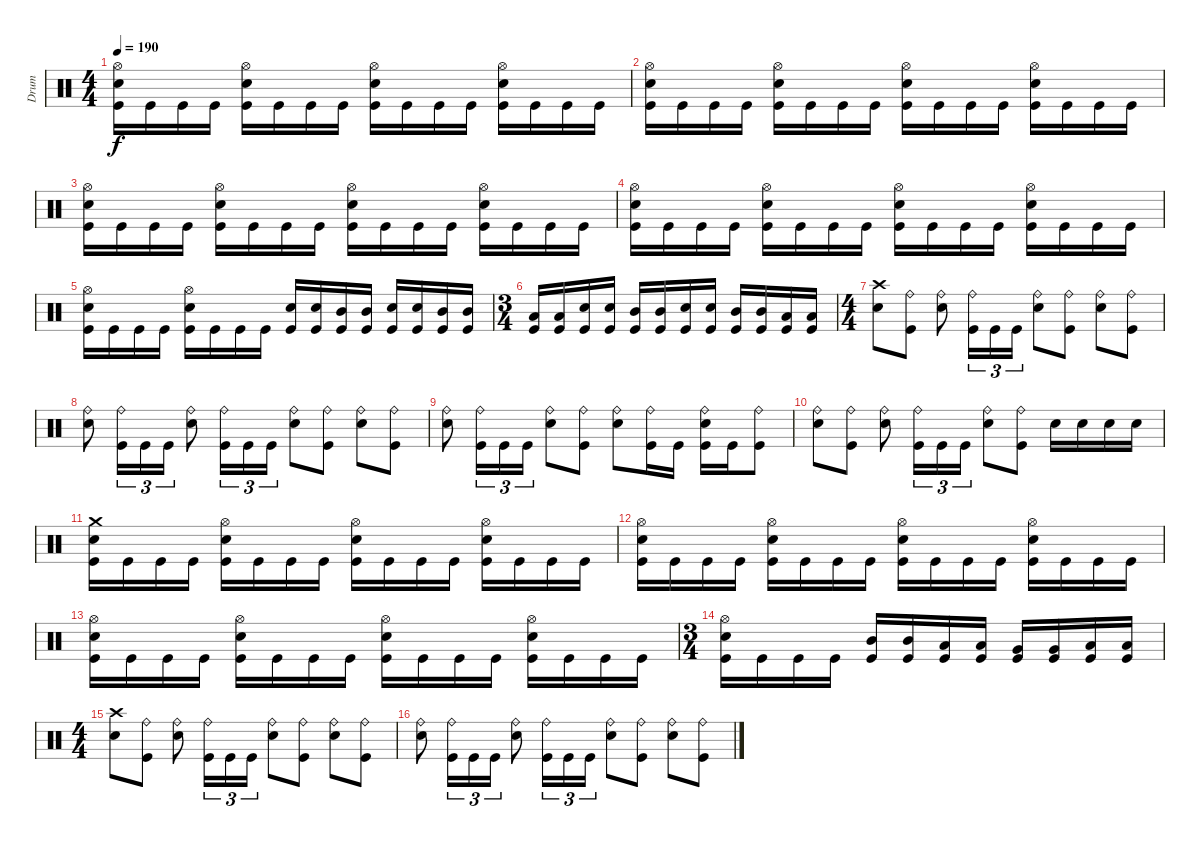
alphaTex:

\track ("Drum" "Drum") {instrument percussion}
\staff {score}
\articulation defaults
\ts (4 4)
\tempo 190
\clef neutral
\ks c
("Kick (hit)" "Electric Snare (hit)" "Hi-Hat (open)").16{dy f} "Kick (hit)".16 "Kick (hit)".16 "Kick (hit)".16 ("Kick (hit)" "Electric Snare (hit)" "Hi-Hat (open)").16 "Kick (hit)".16 "Kick (hit)".16 "Kick (hit)".16 ("Kick (hit)" "Electric Snare (hit)" "Hi-Hat (open)").16 "Kick (hit)".16 "Kick (hit)".16 "Kick (hit)".16 ("Kick (hit)" "Electric Snare (hit)" "Hi-Hat (open)").16 "Kick (hit)".16 "Kick (hit)".16 "Kick (hit)".16 |
("Kick (hit)" "Electric Snare (hit)" "Hi-Hat (open)").16 "Kick (hit)".16 "Kick (hit)".16 "Kick (hit)".16 ("Kick (hit)" "Electric Snare (hit)" "Hi-Hat (open)").16 "Kick (hit)".16 "Kick (hit)".16 "Kick (hit)".16 ("Kick (hit)" "Electric Snare (hit)" "Hi-Hat (open)").16 "Kick (hit)".16 "Kick (hit)".16 "Kick (hit)".16 ("Kick (hit)" "Electric Snare (hit)" "Hi-Hat (open)").16 "Kick (hit)".16 "Kick (hit)".16 "Kick (hit)".16 |
("Kick (hit)" "Electric Snare (hit)" "Hi-Hat (open)").16 "Kick (hit)".16 "Kick (hit)".16 "Kick (hit)".16 ("Kick (hit)" "Electric Snare (hit)" "Hi-Hat (open)").16 "Kick (hit)".16 "Kick (hit)".16 "Kick (hit)".16 ("Kick (hit)" "Electric Snare (hit)" "Hi-Hat (open)").16 "Kick (hit)".16 "Kick (hit)".16 "Kick (hit)".16 ("Kick (hit)" "Electric Snare (hit)" "Hi-Hat (open)").16 "Kick (hit)".16 "Kick (hit)".16 "Kick (hit)".16 |
("Kick (hit)" "Electric Snare (hit)" "Hi-Hat (open)").16 "Kick (hit)".16 "Kick (hit)".16 "Kick (hit)".16 ("Kick (hit)" "Electric Snare (hit)" "Hi-Hat (open)").16 "Kick (hit)".16 "Kick (hit)".16 "Kick (hit)".16 ("Kick (hit)" "Electric Snare (hit)" "Hi-Hat (open)").16 "Kick (hit)".16 "Kick (hit)".16 "Kick (hit)".16 ("Kick (hit)" "Electric Snare (hit)" "Hi-Hat (open)").16 "Kick (hit)".16 "Kick (hit)".16 "Kick (hit)".16 |
("Kick (hit)" "Electric Snare (hit)" "Hi-Hat (open)").16 "Kick (hit)".16 "Kick (hit)".16 "Kick (hit)".16 ("Kick (hit)" "Electric Snare (hit)" "Hi-Hat (open)").16 "Kick (hit)".16 "Kick (hit)".16 "Kick (hit)".16 ("Kick (hit)" "Electric Snare (hit)").16 ("Kick (hit)" "Electric Snare (hit)").16 ("Kick (hit)" "Mid Tom (hit)").16 ("Kick (hit)" "Mid Tom (hit)").16 ("Kick (hit)" "Electric Snare (hit)").16 ("Kick (hit)" "Electric Snare (hit)").16 ("Kick (hit)" "Mid Tom (hit)").16 ("Kick (hit)" "Mid Tom (hit)").16 |
\ts (3 4)
("Kick (hit)" "Low Tom (hit)").16 ("Kick (hit)" "Low Tom (hit)").16 ("Kick (hit)" "Electric Snare (hit)").16 ("Kick (hit)" "Electric Snare (hit)").16 ("Kick (hit)" "Mid Tom (hit)").16 ("Kick (hit)" "Mid Tom (hit)").16 ("Kick (hit)" "Electric Snare (hit)").16 ("Kick (hit)" "Electric Snare (hit)").16 ("Kick (hit)" "Mid Tom (hit)").16 ("Kick (hit)" "Mid Tom (hit)").16 ("Kick (hit)" "Low Tom (hit)").16 ("Kick (hit)" "Low Tom (hit)").16 |
\ts (4 4)
("Electric Snare (hit)" "Crash high (hit)").8 ("Kick (hit)" "Ride (bell)").8 ("Electric Snare (hit)" "Ride (bell)").8 ("Kick (hit)" "Ride (bell)").16{tu (3 2)} "Kick (hit)".16{tu (3 2)} "Kick (hit)".16{tu (3 2)} ("Electric Snare (hit)" "Ride (bell)").8 ("Kick (hit)" "Ride (bell)").8 ("Electric Snare (hit)" "Ride (bell)").8 ("Kick (hit)" "Ride (bell)").8 |
("Electric Snare (hit)" "Ride (bell)").8 ("Kick (hit)" "Ride (bell)").16{tu (3 2)} "Kick (hit)".16{tu (3 2)} "Kick (hit)".16{tu (3 2)} ("Electric Snare (hit)" "Ride (bell)").8 ("Kick (hit)" "Ride (bell)").16{tu (3 2)} "Kick (hit)".16{tu (3 2)} "Kick (hit)".16{tu (3 2)} ("Electric Snare (hit)" "Ride (bell)").8 ("Kick (hit)" "Ride (bell)").8 ("Electric Snare (hit)" "Ride (bell)").8 ("Kick (hit)" "Ride (bell)").8 |
("Electric Snare (hit)" "Ride (bell)").8 ("Kick (hit)" "Ride (bell)").16{tu (3 2)} "Kick (hit)".16{tu (3 2)} "Kick (hit)".16{tu (3 2)} ("Electric Snare (hit)" "Ride (bell)").8 ("Kick (hit)" "Ride (bell)").8 ("Electric Snare (hit)" "Ride (bell)").8 ("Kick (hit)" "Ride (bell)").16 "Kick (hit)".16 ("Kick (hit)" "Electric Snare (hit)" "Ride (bell)").16 "Kick (hit)".16 ("Kick (hit)" "Ride (bell)").8 |
("Electric Snare (hit)" "Ride (bell)").8 ("Kick (hit)" "Ride (bell)").8 ("Electric Snare (hit)" "Ride (bell)").8 ("Kick (hit)" "Ride (bell)").16{tu (3 2)} "Kick (hit)".16{tu (3 2)} "Kick (hit)".16{tu (3 2)} ("Electric Snare (hit)" "Ride (bell)").8 ("Kick (hit)" "Ride (bell)").8 "Electric Snare (hit)".16 "Electric Snare (hit)".16 "Electric Snare (hit)".16 "Electric Snare (hit)".16 |
("Kick (hit)" "Electric Snare (hit)" "Crash medium (hit)").16 "Kick (hit)".16 "Kick (hit)".16 "Kick (hit)".16 ("Kick (hit)" "Electric Snare (hit)" "Hi-Hat (open)").16 "Kick (hit)".16 "Kick (hit)".16 "Kick (hit)".16 ("Kick (hit)" "Electric Snare (hit)" "Hi-Hat (open)").16 "Kick (hit)".16 "Kick (hit)".16 "Kick (hit)".16 ("Kick (hit)" "Electric Snare (hit)" "Hi-Hat (open)").16 "Kick (hit)".16 "Kick (hit)".16 "Kick (hit)".16 |
("Kick (hit)" "Electric Snare (hit)" "Hi-Hat (open)").16 "Kick (hit)".16 "Kick (hit)".16 "Kick (hit)".16 ("Kick (hit)" "Electric Snare (hit)" "Hi-Hat (open)").16 "Kick (hit)".16 "Kick (hit)".16 "Kick (hit)".16 ("Kick (hit)" "Electric Snare (hit)" "Hi-Hat (open)").16 "Kick (hit)".16 "Kick (hit)".16 "Kick (hit)".16 ("Kick (hit)" "Electric Snare (hit)" "Hi-Hat (open)").16 "Kick (hit)".16 "Kick (hit)".16 "Kick (hit)".16 |
("Kick (hit)" "Electric Snare (hit)" "Hi-Hat (open)").16 "Kick (hit)".16 "Kick (hit)".16 "Kick (hit)".16 ("Kick (hit)" "Electric Snare (hit)" "Hi-Hat (open)").16 "Kick (hit)".16 "Kick (hit)".16 "Kick (hit)".16 ("Kick (hit)" "Electric Snare (hit)" "Hi-Hat (open)").16 "Kick (hit)".16 "Kick (hit)".16 "Kick (hit)".16 ("Kick (hit)" "Electric Snare (hit)" "Hi-Hat (open)").16 "Kick (hit)".16 "Kick (hit)".16 "Kick (hit)".16 |
\ts (3 4)
("Kick (hit)" "Electric Snare (hit)" "Hi-Hat (open)").16 "Kick (hit)".16 "Kick (hit)".16 "Kick (hit)".16 ("Kick (hit)" "Mid Tom (hit)").16 ("Kick (hit)" "Mid Tom (hit)").16 ("Kick (hit)" "Low Tom (hit)").16 ("Kick (hit)" "Low Tom (hit)").16 ("Kick (hit)" "Very Low Tom (hit)").16 ("Kick (hit)" "Very Low Tom (hit)").16 ("Kick (hit)" "Low Floor Tom (hit)").16 ("Kick (hit)" "Low Floor Tom (hit)").16 |
\ts (4 4)
("Electric Snare (hit)" "Crash high (hit)").8 ("Kick (hit)" "Ride (bell)").8 ("Electric Snare (hit)" "Ride (bell)").8 ("Kick (hit)" "Ride (bell)").16{tu (3 2)} "Kick (hit)".16{tu (3 2)} "Kick (hit)".16{tu (3 2)} ("Electric Snare (hit)" "Ride (bell)").8 ("Kick (hit)" "Ride (bell)").8 ("Electric Snare (hit)" "Ride (bell)").8 ("Kick (hit)" "Ride (bell)").8 |
("Electric Snare (hit)" "Ride (bell)").8 ("Kick (hit)" "Ride (bell)").16{tu (3 2)} "Kick (hit)".16{tu (3 2)} "Kick (hit)".16{tu (3 2)} ("Electric Snare (hit)" "Ride (bell)").8 ("Kick (hit)" "Ride (bell)").16{tu (3 2)} "Kick (hit)".16{tu (3 2)} "Kick (hit)".16{tu (3 2)} ("Electric Snare (hit)" "Ride (bell)").8 ("Kick (hit)" "Ride (bell)").8 ("Electric Snare (hit)" "Ride (bell)").8 ("Kick (hit)" "Ride (bell)").8
